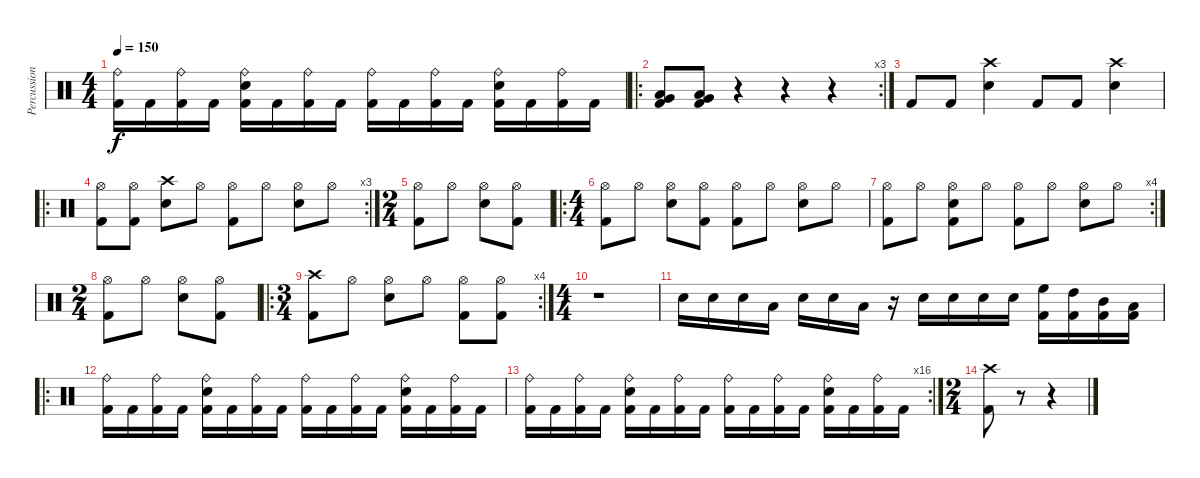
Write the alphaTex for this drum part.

\track ("Percussion" "Percussion") {instrument percussion}
\staff {score}
\articulation defaults
\ts (4 4)
\tempo 150
\clef neutral
\ks c
("Ride (bell)" "Kick (hit) 2").16{dy f} "Kick (hit) 2".16 ("Ride (bell)" "Kick (hit) 2").16 "Kick (hit) 2".16 ("Ride (bell)" "Electric Snare (hit)" "Kick (hit) 2").16 "Kick (hit) 2".16 ("Ride (bell)" "Kick (hit) 2").16 "Kick (hit) 2".16 ("Ride (bell)" "Kick (hit) 2").16 "Kick (hit) 2".16 ("Ride (bell)" "Kick (hit) 2").16 "Kick (hit) 2".16 ("Ride (bell)" "Electric Snare (hit)" "Kick (hit) 2").16 "Kick (hit) 2".16 ("Ride (bell)" "Kick (hit) 2").16 "Kick (hit) 2".16 |
\ro
\rc 3
("Low Tom (hit)" "Very Low Tom (hit)" "Kick (hit) 2").8 ("Low Tom (hit)" "Very Low Tom (hit)" "Kick (hit) 2").8 r.4 r.4 r.4 |
"Kick (hit) 2".8 "Kick (hit) 2".8 ("Crash high (hit)" "Electric Snare (hit)").4 "Kick (hit) 2".8 "Kick (hit) 2".8 ("Crash high (hit)" "Electric Snare (hit)").4 |
\ro
\rc 3
("Hi-Hat (open)" "Kick (hit) 2").8 ("Hi-Hat (open)" "Kick (hit) 2").8 ("Crash high (hit)" "Electric Snare (hit)").8 "Hi-Hat (open)".8 ("Hi-Hat (open)" "Kick (hit) 2").8 "Hi-Hat (open)".8 ("Hi-Hat (open)" "Electric Snare (hit)").8 "Hi-Hat (open)".8 |
\ts (2 4)
("Hi-Hat (open)" "Kick (hit) 2").8 "Hi-Hat (open)".8 ("Hi-Hat (open)" "Electric Snare (hit)").8 ("Hi-Hat (open)" "Kick (hit) 2").8 |
\ro
\ts (4 4)
("Hi-Hat (open)" "Kick (hit) 2").8 "Hi-Hat (open)".8 ("Hi-Hat (open)" "Electric Snare (hit)").8 ("Hi-Hat (open)" "Kick (hit) 2").8 ("Hi-Hat (open)" "Kick (hit) 2").8 "Hi-Hat (open)".8 ("Hi-Hat (open)" "Electric Snare (hit)").8 "Hi-Hat (open)".8 |
\rc 4
("Hi-Hat (open)" "Kick (hit) 2").8 "Hi-Hat (open)".8 ("Hi-Hat (open)" "Electric Snare (hit)" "Kick (hit) 2").8 "Hi-Hat (open)".8 ("Hi-Hat (open)" "Kick (hit) 2").8 "Hi-Hat (open)".8 ("Hi-Hat (open)" "Electric Snare (hit)").8 "Hi-Hat (open)".8 |
\ts (2 4)
("Hi-Hat (open)" "Kick (hit) 2").8 "Hi-Hat (open)".8 ("Hi-Hat (open)" "Electric Snare (hit)").8 ("Hi-Hat (open)" "Kick (hit) 2").8 |
\ro
\rc 4
\ts (3 4)
("Crash high (hit)" "Kick (hit) 2").8 "Hi-Hat (open)".8 ("Hi-Hat (open)" "Electric Snare (hit)").8 "Hi-Hat (open)".8 ("Hi-Hat (open)" "Kick (hit) 2").8 ("Hi-Hat (open)" "Kick (hit) 2").8 |
\ts (4 4)
r.1 |
"Electric Snare (hit)".16 "Electric Snare (hit)".16 "Electric Snare (hit)".16 "Low Tom (hit)".16 "Electric Snare (hit)".16 "Electric Snare (hit)".16 "Low Tom (hit)".16 r.16 "Electric Snare (hit)".16 "Electric Snare (hit)".16 "Electric Snare (hit)".16 "Electric Snare (hit)".16 ("High Floor Tom (hit)" "Kick (hit) 2").16 ("High Tom (hit)" "Kick (hit) 2").16 ("Mid Tom (hit)" "Kick (hit) 2").16 ("Low Tom (hit)" "Kick (hit) 2").16 |
\ro
("Ride (bell)" "Kick (hit) 2").16 "Kick (hit) 2".16 ("Ride (bell)" "Kick (hit) 2").16 "Kick (hit) 2".16 ("Ride (bell)" "Electric Snare (hit)" "Kick (hit) 2").16 "Kick (hit) 2".16 ("Ride (bell)" "Kick (hit) 2").16 "Kick (hit) 2".16 ("Ride (bell)" "Kick (hit) 2").16 "Kick (hit) 2".16 ("Ride (bell)" "Kick (hit) 2").16 "Kick (hit) 2".16 ("Ride (bell)" "Electric Snare (hit)" "Kick (hit) 2").16 "Kick (hit) 2".16 ("Ride (bell)" "Kick (hit) 2").16 "Kick (hit) 2".16 |
\rc 16
("Ride (bell)" "Kick (hit) 2").16 "Kick (hit) 2".16 ("Ride (bell)" "Kick (hit) 2").16 "Kick (hit) 2".16 ("Ride (bell)" "Electric Snare (hit)" "Kick (hit) 2").16 "Kick (hit) 2".16 ("Ride (bell)" "Kick (hit) 2").16 "Kick (hit) 2".16 ("Ride (bell)" "Kick (hit) 2").16 "Kick (hit) 2".16 ("Ride (bell)" "Kick (hit) 2").16 "Kick (hit) 2".16 ("Ride (bell)" "Electric Snare (hit)" "Kick (hit) 2").16 "Kick (hit) 2".16 ("Ride (bell)" "Kick (hit) 2").16 "Kick (hit) 2".16 |
\ts (2 4)
("Crash high (hit)" "Kick (hit) 2").8 r.8 r.4
